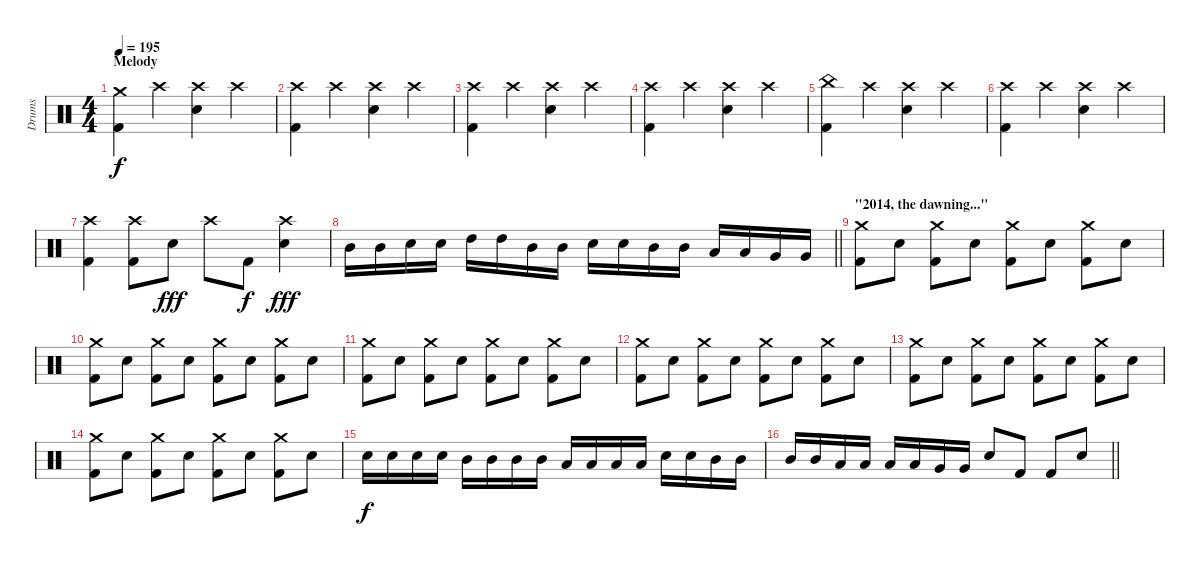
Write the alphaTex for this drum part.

\track ("Drums" "Drums") {instrument percussion}
\staff {score}
\articulation defaults
\ts (4 4)
\section ("" "Melody")
\tempo 195
\clef neutral
\ks c
("Crash medium (hit)" "Kick (hit) 2").4{dy f} "Crash high (hit)".4 ("Crash high (hit)" "Snare (hit) 2").4 "Crash high (hit)".4 |
("Crash high (hit)" "Kick (hit) 2").4 "Crash high (hit)".4 ("Crash high (hit)" "Snare (hit) 2").4 "Crash high (hit)".4 |
("Crash high (hit)" "Kick (hit) 2").4 "Crash high (hit)".4 ("Crash high (hit)" "Snare (hit) 2").4 "Crash high (hit)".4 |
("Crash high (hit)" "Kick (hit) 2").4 "Crash high (hit)".4 ("Crash high (hit)" "Snare (hit) 2").4 "Crash high (hit)".4 |
("China (hit)" "Kick (hit) 2").4 "Crash high (hit)".4 ("Crash high (hit)" "Snare (hit) 2").4 "Crash high (hit)".4 |
("Crash high (hit)" "Kick (hit) 2").4 "Crash high (hit)".4 ("Crash high (hit)" "Snare (hit) 2").4 "Crash high (hit)".4 |
("Crash high (hit)" "Kick (hit) 2").4 ("Crash high (hit)" "Kick (hit) 2").8 "Snare (hit) 2".8{dy fff} "Crash high (hit)".8 "Kick (hit) 2".8{dy f} ("Crash high (hit)" "Snare (hit) 2").4{dy fff} |
\barLineRight lightlight "Mid Tom (hit)".16 "Mid Tom (hit)".16 "Snare (hit) 2".16 "Snare (hit) 2".16 "High Tom (hit)".16 "High Tom (hit)".16 "Mid Tom (hit)".16 "Mid Tom (hit)".16 "Snare (hit) 2".16 "Snare (hit) 2".16 "Mid Tom (hit)".16 "Mid Tom (hit)".16 "Low Tom (hit)".16 "Low Tom (hit)".16 "Very Low Tom (hit)".16 "Very Low Tom (hit)".16
|
\section ("" "\"2014, the dawning...\"")
("Crash medium (hit)" "Kick (hit) 2").8 "Snare (hit) 2".8 ("Crash medium (hit)" "Kick (hit) 2").8 "Snare (hit) 2".8 ("Crash medium (hit)" "Kick (hit) 2").8 "Snare (hit) 2".8 ("Crash medium (hit)" "Kick (hit) 2").8 "Snare (hit) 2".8 |
("Crash medium (hit)" "Kick (hit) 2").8 "Snare (hit) 2".8 ("Crash medium (hit)" "Kick (hit) 2").8 "Snare (hit) 2".8 ("Crash medium (hit)" "Kick (hit) 2").8 "Snare (hit) 2".8 ("Crash medium (hit)" "Kick (hit) 2").8 "Snare (hit) 2".8 |
("Crash medium (hit)" "Kick (hit) 2").8 "Snare (hit) 2".8 ("Crash medium (hit)" "Kick (hit) 2").8 "Snare (hit) 2".8 ("Crash medium (hit)" "Kick (hit) 2").8 "Snare (hit) 2".8 ("Crash medium (hit)" "Kick (hit) 2").8 "Snare (hit) 2".8 |
("Crash medium (hit)" "Kick (hit) 2").8 "Snare (hit) 2".8 ("Crash medium (hit)" "Kick (hit) 2").8 "Snare (hit) 2".8 ("Crash medium (hit)" "Kick (hit) 2").8 "Snare (hit) 2".8 ("Crash medium (hit)" "Kick (hit) 2").8 "Snare (hit) 2".8 |
("Crash medium (hit)" "Kick (hit) 2").8 "Snare (hit) 2".8 ("Crash medium (hit)" "Kick (hit) 2").8 "Snare (hit) 2".8 ("Crash medium (hit)" "Kick (hit) 2").8 "Snare (hit) 2".8 ("Crash medium (hit)" "Kick (hit) 2").8 "Snare (hit) 2".8 |
("Crash medium (hit)" "Kick (hit) 2").8 "Snare (hit) 2".8 ("Crash medium (hit)" "Kick (hit) 2").8 "Snare (hit) 2".8 ("Crash medium (hit)" "Kick (hit) 2").8 "Snare (hit) 2".8 ("Crash medium (hit)" "Kick (hit) 2").8 "Snare (hit) 2".8 |
"Snare (hit) 2".16{dy f} "Snare (hit) 2".16 "Snare (hit) 2".16 "Snare (hit) 2".16 "Mid Tom (hit)".16 "Mid Tom (hit)".16 "Mid Tom (hit)".16 "Mid Tom (hit)".16 "Low Tom (hit)".16 "Low Tom (hit)".16 "Low Tom (hit)".16 "Low Tom (hit)".16 "Snare (hit) 2".16 "Snare (hit) 2".16 "Mid Tom (hit)".16 "Mid Tom (hit)".16 |
\barLineRight lightlight "Mid Tom (hit)".16 "Mid Tom (hit)".16 "Low Tom (hit)".16 "Low Tom (hit)".16 "Low Tom (hit)".16 "Low Tom (hit)".16 "Very Low Tom (hit)".16 "Very Low Tom (hit)".16 "Snare (hit) 2".8 "Kick (hit) 2".8 "Kick (hit) 2".8 "Snare (hit) 2".8
